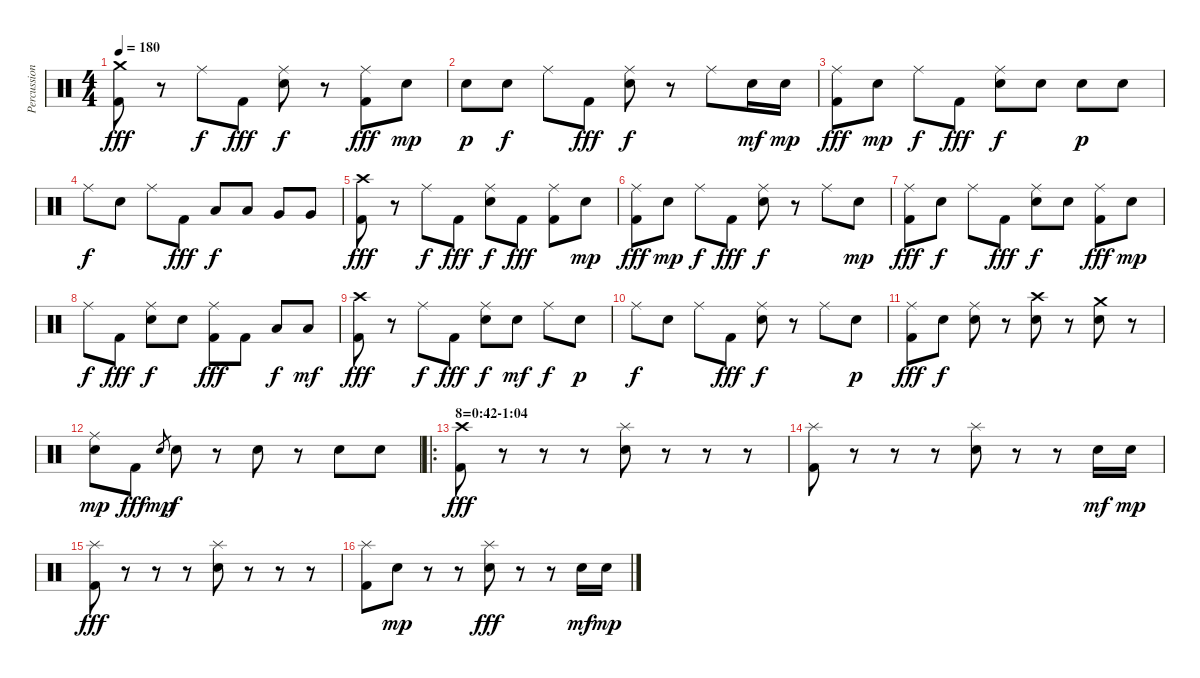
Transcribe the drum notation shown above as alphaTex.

\track ("Percussion" "Percussion") {instrument percussion}
\staff {score}
\articulation defaults
\ts (4 4)
\tempo 180
\clef neutral
\ks c
("Crash medium (hit)" "Kick (hit) 2").8{dy fff} r.8 "Ride (middle)".8{dy f} "Kick (hit) 2".8{dy fff} ("Ride (middle)" "Electric Snare (hit)").8{dy f} r.8 ("Ride (middle)" "Kick (hit) 2").8{dy fff} "Electric Snare (hit)".8{dy mp} |
"Electric Snare (hit)".8{dy p} "Electric Snare (hit)".8{dy f} "Ride (middle)".8 "Kick (hit) 2".8{dy fff} ("Ride (middle)" "Electric Snare (hit)").8{dy f} r.8 "Ride (middle)".8 "Electric Snare (hit)".16{dy mf} "Electric Snare (hit)".16{dy mp} |
("Ride (middle)" "Kick (hit) 2").8{dy fff} "Electric Snare (hit)".8{dy mp} "Ride (middle)".8{dy f} "Kick (hit) 2".8{dy fff} ("Ride (middle)" "Electric Snare (hit)").8{dy f} "Electric Snare (hit)".8 "Electric Snare (hit)".8{dy p} "Electric Snare (hit)".8 |
"Ride (middle)".8{dy f} "Electric Snare (hit)".8 "Ride (middle)".8 "Kick (hit) 2".8{dy fff} "Low Tom (hit)".8{dy f} "Low Tom (hit)".8 "Very Low Tom (hit)".8 "Very Low Tom (hit)".8 |
("Crash high (hit)" "Kick (hit) 2").8{dy fff} r.8 "Ride (middle)".8{dy f} "Kick (hit) 2".8{dy fff} ("Ride (middle)" "Electric Snare (hit)").8{dy f} "Kick (hit) 2".8{dy fff} ("Ride (middle)" "Kick (hit) 2").8 "Electric Snare (hit)".8{dy mp} |
("Ride (middle)" "Kick (hit) 2").8{dy fff} "Electric Snare (hit)".8{dy mp} "Ride (middle)".8{dy f} "Kick (hit) 2".8{dy fff} ("Ride (middle)" "Electric Snare (hit)").8{dy f} r.8 "Ride (middle)".8 "Electric Snare (hit)".8{dy mp} |
("Ride (middle)" "Kick (hit) 2").8{dy fff} "Electric Snare (hit)".8{dy f} "Ride (middle)".8 "Kick (hit) 2".8{dy fff} ("Ride (middle)" "Electric Snare (hit)").8{dy f} "Electric Snare (hit)".8 ("Ride (middle)" "Kick (hit) 2").8{dy fff} "Electric Snare (hit)".8{dy mp} |
"Ride (middle)".8{dy f} "Kick (hit) 2".8{dy fff} ("Ride (middle)" "Electric Snare (hit)").8{dy f} "Electric Snare (hit)".8 ("Ride (middle)" "Kick (hit) 2").8{dy fff} "Kick (hit) 2".8 "Low Floor Tom (hit)".8{dy f} "Low Floor Tom (hit)".8{dy mf} |
("Crash high (hit)" "Kick (hit) 2").8{dy fff} r.8 "Ride (middle)".8{dy f} "Kick (hit) 2".8{dy fff} ("Ride (middle)" "Electric Snare (hit)").8{dy f} "Electric Snare (hit)".8{dy mf} "Ride (middle)".8{dy f} "Electric Snare (hit)".8{dy p} |
"Ride (middle)".8{dy f} "Electric Snare (hit)".8 "Ride (middle)".8 "Kick (hit) 2".8{dy fff} ("Ride (middle)" "Electric Snare (hit)").8{dy f} r.8 "Ride (middle)".8 "Electric Snare (hit)".8{dy p} |
("Ride (middle)" "Kick (hit) 2").8{dy fff} "Electric Snare (hit)".8{dy f} ("Ride (middle)" "Electric Snare (hit)").8 r.8 ("Crash high (hit)" "Electric Snare (hit)").8 r.8 ("Crash medium (hit)" "Electric Snare (hit)").8 r.8 |
("Ride (middle)" "Electric Snare (hit)").8{dy mp} "Kick (hit) 2".8{dy fff} "Electric Snare (hit)".8{gr dy mp} "Electric Snare (hit)".8{dy f} r.8 "Electric Snare (hit)".8 r.8 "Electric Snare (hit)".8 "Electric Snare (hit)".8 |
\ro
\section ("" "8=0:42-1:04")
("Crash high (hit)" "Kick (hit) 2").8{dy fff} r.8 r.8 r.8 ("Splash (hit)" "Electric Snare (hit)").8 r.8 r.8 r.8 |
("Splash (hit)" "Kick (hit) 2").8 r.8 r.8 r.8 ("Splash (hit)" "Electric Snare (hit)").8 r.8 r.8 "Electric Snare (hit)".16{dy mf} "Electric Snare (hit)".16{dy mp} |
("Splash (hit)" "Kick (hit) 2").8{dy fff} r.8 r.8 r.8 ("Splash (hit)" "Electric Snare (hit)").8 r.8 r.8 r.8 |
("Splash (hit)" "Kick (hit) 2").8 "Electric Snare (hit)".8{dy mp} r.8 r.8 ("Splash (hit)" "Electric Snare (hit)").8{dy fff} r.8 r.8 "Electric Snare (hit)".16{dy mf} "Electric Snare (hit)".16{dy mp}
